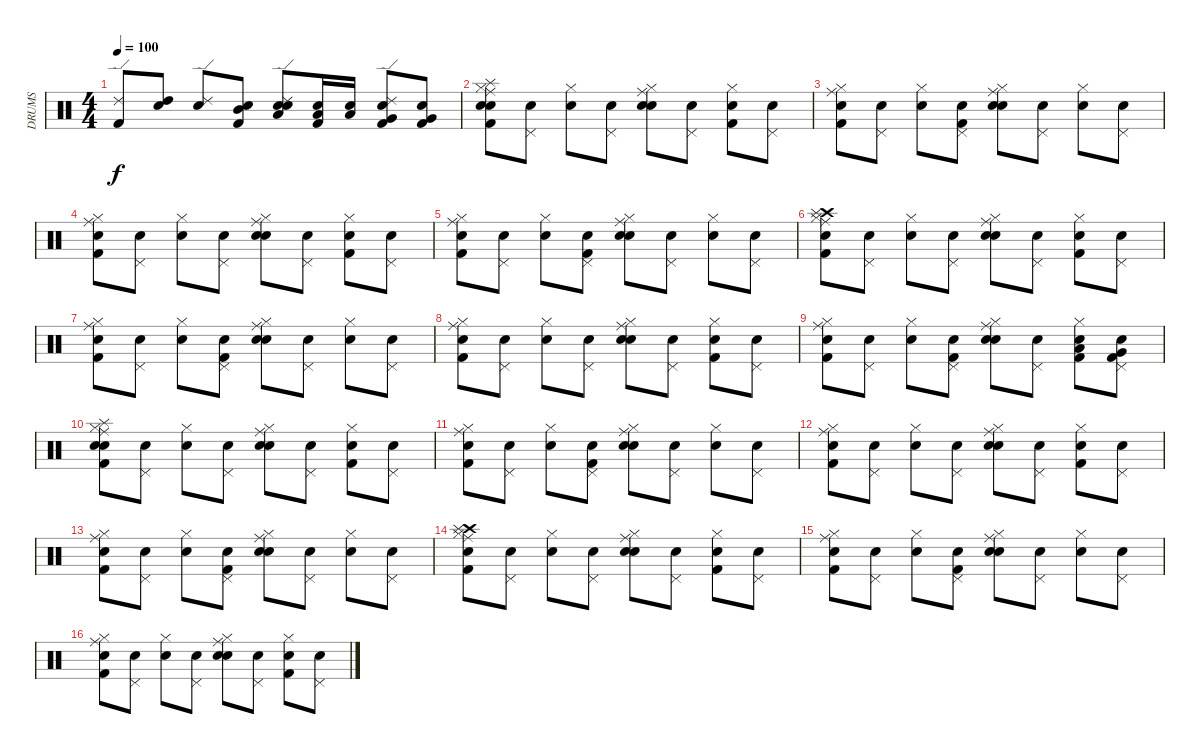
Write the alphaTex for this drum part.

\track ("DRUMS" "DRUMS") {instrument percussion}
\staff {score}
\articulation defaults
\ts (4 4)
\tempo 100
\clef neutral
\ks c
("Kick (hit) 2" "Ride (edge) 2").8{dy f} ("Snare (hit)" "High Tom (hit)").8 ("Snare (hit)" "Ride (edge) 2").8 ("Snare (hit)" "Mid Tom (hit)" "Kick (hit) 2").8 ("Snare (hit)" "Low Tom (hit)" "Snare (hit) 2" "Ride (edge) 2").8 ("Snare (hit)" "Low Tom (hit)" "Kick (hit) 2").16 ("Snare (hit)" "Low Tom (hit)").16 ("Snare (hit)" "Very Low Tom (hit)" "Kick (hit) 2" "Ride (edge) 2").8 ("Snare (hit)" "Very Low Tom (hit)" "Kick (hit) 2").8 |
("Snare (hit)" "Ride (middle)" "Hi-Hat (closed)" "Kick (hit) 2" "Snare (hit) 2" "Splash (hit)").8 ("Snare (hit)" "Pedal Hi-Hat (hit)").8 ("Snare (hit)" "Hi-Hat (closed)").8 ("Snare (hit)" "Pedal Hi-Hat (hit)").8 ("Snare (hit)" "Ride (middle)" "Hi-Hat (closed)" "Snare (hit) 2").8 ("Snare (hit)" "Pedal Hi-Hat (hit)").8 ("Snare (hit)" "Hi-Hat (closed)" "Kick (hit) 2").8 ("Snare (hit)" "Pedal Hi-Hat (hit)").8 |
("Snare (hit)" "Ride (middle)" "Hi-Hat (closed)" "Kick (hit) 2").8 ("Snare (hit)" "Pedal Hi-Hat (hit)").8 ("Snare (hit)" "Hi-Hat (closed)").8 ("Snare (hit)" "Pedal Hi-Hat (hit)" "Kick (hit) 2").8 ("Snare (hit)" "Ride (middle)" "Hi-Hat (closed)" "Snare (hit) 2").8 ("Snare (hit)" "Pedal Hi-Hat (hit)").8 ("Snare (hit)" "Hi-Hat (closed)").8 ("Snare (hit)" "Pedal Hi-Hat (hit)").8 |
("Snare (hit)" "Kick (hit) 2" "Ride (middle)" "Hi-Hat (closed)").8 ("Snare (hit)" "Pedal Hi-Hat (hit)").8 ("Snare (hit)" "Hi-Hat (closed)").8 ("Snare (hit)" "Pedal Hi-Hat (hit)").8 ("Snare (hit)" "Ride (middle)" "Hi-Hat (closed)" "Snare (hit) 2").8 ("Snare (hit)" "Pedal Hi-Hat (hit)").8 ("Snare (hit)" "Hi-Hat (closed)" "Kick (hit) 2").8 ("Snare (hit)" "Pedal Hi-Hat (hit)").8 |
("Snare (hit)" "Ride (middle)" "Hi-Hat (closed)" "Kick (hit) 2").8 ("Snare (hit)" "Pedal Hi-Hat (hit)").8 ("Snare (hit)" "Hi-Hat (closed)").8 ("Snare (hit)" "Pedal Hi-Hat (hit)" "Kick (hit) 2").8 ("Snare (hit)" "Ride (middle)" "Hi-Hat (closed)" "Snare (hit) 2").8 ("Snare (hit)" "Pedal Hi-Hat (hit)").8 ("Snare (hit)" "Hi-Hat (closed)").8 ("Snare (hit)" "Pedal Hi-Hat (hit)").8 |
("Snare (hit)" "Hi-Hat (closed)" "Ride (middle)" "Kick (hit) 2" "Crash high (hit)" "Splash (hit)").8 ("Snare (hit)" "Pedal Hi-Hat (hit)").8 ("Snare (hit)" "Hi-Hat (closed)").8 ("Snare (hit)" "Pedal Hi-Hat (hit)").8 ("Snare (hit)" "Ride (middle)" "Hi-Hat (closed)" "Snare (hit) 2").8 ("Snare (hit)" "Pedal Hi-Hat (hit)").8 ("Snare (hit)" "Hi-Hat (closed)" "Kick (hit) 2").8 ("Snare (hit)" "Pedal Hi-Hat (hit)").8 |
("Snare (hit)" "Ride (middle)" "Hi-Hat (closed)" "Kick (hit) 2").8 ("Snare (hit)" "Pedal Hi-Hat (hit)").8 ("Snare (hit)" "Hi-Hat (closed)").8 ("Snare (hit)" "Pedal Hi-Hat (hit)" "Kick (hit) 2").8 ("Snare (hit)" "Ride (middle)" "Hi-Hat (closed)" "Snare (hit) 2").8 ("Snare (hit)" "Pedal Hi-Hat (hit)").8 ("Snare (hit)" "Hi-Hat (closed)").8 ("Snare (hit)" "Pedal Hi-Hat (hit)").8 |
("Snare (hit)" "Kick (hit) 2" "Ride (middle)" "Hi-Hat (closed)").8 ("Snare (hit)" "Pedal Hi-Hat (hit)").8 ("Snare (hit)" "Hi-Hat (closed)").8 ("Snare (hit)" "Pedal Hi-Hat (hit)").8 ("Snare (hit)" "Ride (middle)" "Hi-Hat (closed)" "Snare (hit) 2").8 ("Snare (hit)" "Pedal Hi-Hat (hit)").8 ("Snare (hit)" "Hi-Hat (closed)" "Kick (hit) 2").8 ("Snare (hit)" "Pedal Hi-Hat (hit)").8 |
("Snare (hit)" "Ride (middle)" "Hi-Hat (closed)" "Kick (hit) 2").8 ("Snare (hit)" "Pedal Hi-Hat (hit)").8 ("Snare (hit)" "Hi-Hat (closed)").8 ("Snare (hit)" "Pedal Hi-Hat (hit)" "Kick (hit) 2").8 ("Snare (hit)" "Ride (middle)" "Hi-Hat (closed)" "Snare (hit) 2").8 ("Snare (hit)" "Pedal Hi-Hat (hit)").8 ("Snare (hit)" "Kick (hit) 2" "Low Tom (hit)" "Hi-Hat (closed)").8 ("Snare (hit)" "Very Low Tom (hit)" "Kick (hit) 2" "Pedal Hi-Hat (hit)").8 |
("Snare (hit)" "Ride (middle)" "Hi-Hat (closed)" "Kick (hit) 2" "Snare (hit) 2" "Splash (hit)").8 ("Snare (hit)" "Pedal Hi-Hat (hit)").8 ("Snare (hit)" "Hi-Hat (closed)").8 ("Snare (hit)" "Pedal Hi-Hat (hit)").8 ("Snare (hit)" "Ride (middle)" "Hi-Hat (closed)" "Snare (hit) 2").8 ("Snare (hit)" "Pedal Hi-Hat (hit)").8 ("Snare (hit)" "Hi-Hat (closed)" "Kick (hit) 2").8 ("Snare (hit)" "Pedal Hi-Hat (hit)").8 |
("Snare (hit)" "Ride (middle)" "Hi-Hat (closed)" "Kick (hit) 2").8 ("Snare (hit)" "Pedal Hi-Hat (hit)").8 ("Snare (hit)" "Hi-Hat (closed)").8 ("Snare (hit)" "Pedal Hi-Hat (hit)" "Kick (hit) 2").8 ("Snare (hit)" "Ride (middle)" "Hi-Hat (closed)" "Snare (hit) 2").8 ("Snare (hit)" "Pedal Hi-Hat (hit)").8 ("Snare (hit)" "Hi-Hat (closed)").8 ("Snare (hit)" "Pedal Hi-Hat (hit)").8 |
("Snare (hit)" "Kick (hit) 2" "Ride (middle)" "Hi-Hat (closed)").8 ("Snare (hit)" "Pedal Hi-Hat (hit)").8 ("Snare (hit)" "Hi-Hat (closed)").8 ("Snare (hit)" "Pedal Hi-Hat (hit)").8 ("Snare (hit)" "Ride (middle)" "Hi-Hat (closed)" "Snare (hit) 2").8 ("Snare (hit)" "Pedal Hi-Hat (hit)").8 ("Snare (hit)" "Hi-Hat (closed)" "Kick (hit) 2").8 ("Snare (hit)" "Pedal Hi-Hat (hit)").8 |
("Snare (hit)" "Ride (middle)" "Hi-Hat (closed)" "Kick (hit) 2").8 ("Snare (hit)" "Pedal Hi-Hat (hit)").8 ("Snare (hit)" "Hi-Hat (closed)").8 ("Snare (hit)" "Pedal Hi-Hat (hit)" "Kick (hit) 2").8 ("Snare (hit)" "Ride (middle)" "Hi-Hat (closed)" "Snare (hit) 2").8 ("Snare (hit)" "Pedal Hi-Hat (hit)").8 ("Snare (hit)" "Hi-Hat (closed)").8 ("Snare (hit)" "Pedal Hi-Hat (hit)").8 |
("Snare (hit)" "Hi-Hat (closed)" "Ride (middle)" "Kick (hit) 2" "Crash high (hit)" "Splash (hit)").8 ("Snare (hit)" "Pedal Hi-Hat (hit)").8 ("Snare (hit)" "Hi-Hat (closed)").8 ("Snare (hit)" "Pedal Hi-Hat (hit)").8 ("Snare (hit)" "Ride (middle)" "Hi-Hat (closed)" "Snare (hit) 2").8 ("Snare (hit)" "Pedal Hi-Hat (hit)").8 ("Snare (hit)" "Hi-Hat (closed)" "Kick (hit) 2").8 ("Snare (hit)" "Pedal Hi-Hat (hit)").8 |
("Snare (hit)" "Ride (middle)" "Hi-Hat (closed)" "Kick (hit) 2").8 ("Snare (hit)" "Pedal Hi-Hat (hit)").8 ("Snare (hit)" "Hi-Hat (closed)").8 ("Snare (hit)" "Pedal Hi-Hat (hit)" "Kick (hit) 2").8 ("Snare (hit)" "Ride (middle)" "Hi-Hat (closed)" "Snare (hit) 2").8 ("Snare (hit)" "Pedal Hi-Hat (hit)").8 ("Snare (hit)" "Hi-Hat (closed)").8 ("Snare (hit)" "Pedal Hi-Hat (hit)").8 |
("Snare (hit)" "Kick (hit) 2" "Ride (middle)" "Hi-Hat (closed)").8 ("Snare (hit)" "Pedal Hi-Hat (hit)").8 ("Snare (hit)" "Hi-Hat (closed)").8 ("Snare (hit)" "Pedal Hi-Hat (hit)").8 ("Snare (hit)" "Ride (middle)" "Hi-Hat (closed)" "Snare (hit) 2").8 ("Snare (hit)" "Pedal Hi-Hat (hit)").8 ("Snare (hit)" "Hi-Hat (closed)" "Kick (hit) 2").8 ("Snare (hit)" "Pedal Hi-Hat (hit)").8
